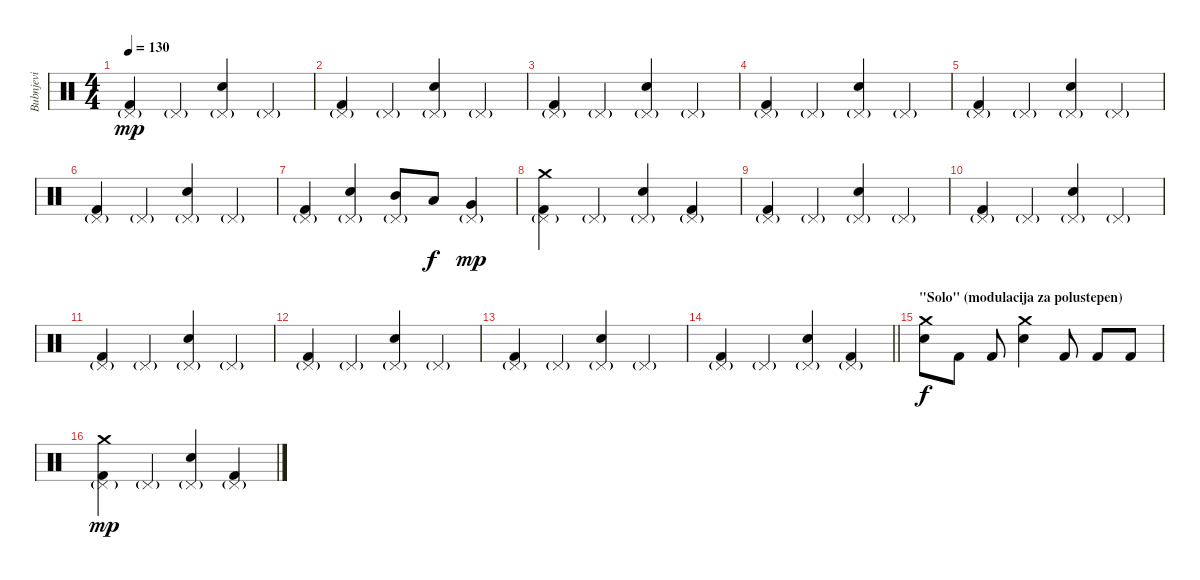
\track ("Bubnjevi" "Bubnjevi") {instrument percussion}
\staff {score}
\articulation defaults
\ts (4 4)
\tempo 130
\clef neutral
\ks c
("Pedal Hi-Hat (hit)"{g} "Kick (hit) 2").4{dy mp} "Pedal Hi-Hat (hit)"{g}.4 ("Pedal Hi-Hat (hit)"{g} "Electric Snare (hit)").4 "Pedal Hi-Hat (hit)"{g}.4 |
("Pedal Hi-Hat (hit)"{g} "Kick (hit) 2").4 "Pedal Hi-Hat (hit)"{g}.4 ("Pedal Hi-Hat (hit)"{g} "Electric Snare (hit)").4 "Pedal Hi-Hat (hit)"{g}.4 |
("Pedal Hi-Hat (hit)"{g} "Kick (hit) 2").4 "Pedal Hi-Hat (hit)"{g}.4 ("Pedal Hi-Hat (hit)"{g} "Electric Snare (hit)").4 "Pedal Hi-Hat (hit)"{g}.4 |
("Pedal Hi-Hat (hit)"{g} "Kick (hit) 2").4 "Pedal Hi-Hat (hit)"{g}.4 ("Pedal Hi-Hat (hit)"{g} "Electric Snare (hit)").4 "Pedal Hi-Hat (hit)"{g}.4 |
("Pedal Hi-Hat (hit)"{g} "Kick (hit) 2").4 "Pedal Hi-Hat (hit)"{g}.4 ("Pedal Hi-Hat (hit)"{g} "Electric Snare (hit)").4 "Pedal Hi-Hat (hit)"{g}.4 |
("Pedal Hi-Hat (hit)"{g} "Kick (hit) 2").4 "Pedal Hi-Hat (hit)"{g}.4 ("Pedal Hi-Hat (hit)"{g} "Electric Snare (hit)").4 "Pedal Hi-Hat (hit)"{g}.4 |
("Pedal Hi-Hat (hit)"{g} "Kick (hit) 2").4 ("Pedal Hi-Hat (hit)"{g} "Electric Snare (hit)").4 ("Pedal Hi-Hat (hit)"{g} "Mid Tom (hit)").8 "Low Tom (hit)".8{dy f} ("Pedal Hi-Hat (hit)"{g} "Very Low Tom (hit)").4{dy mp} |
("Crash medium (hit)" "Pedal Hi-Hat (hit)"{g} "Kick (hit) 2").4 "Pedal Hi-Hat (hit)"{g}.4 ("Pedal Hi-Hat (hit)"{g} "Electric Snare (hit)").4 ("Pedal Hi-Hat (hit)"{g} "Kick (hit) 2").4 |
("Pedal Hi-Hat (hit)"{g} "Kick (hit) 2").4 "Pedal Hi-Hat (hit)"{g}.4 ("Pedal Hi-Hat (hit)"{g} "Electric Snare (hit)").4 "Pedal Hi-Hat (hit)"{g}.4 |
("Pedal Hi-Hat (hit)"{g} "Kick (hit) 2").4 "Pedal Hi-Hat (hit)"{g}.4 ("Pedal Hi-Hat (hit)"{g} "Electric Snare (hit)").4 "Pedal Hi-Hat (hit)"{g}.4 |
("Pedal Hi-Hat (hit)"{g} "Kick (hit) 2").4 "Pedal Hi-Hat (hit)"{g}.4 ("Pedal Hi-Hat (hit)"{g} "Electric Snare (hit)").4 "Pedal Hi-Hat (hit)"{g}.4 |
("Pedal Hi-Hat (hit)"{g} "Kick (hit) 2").4 "Pedal Hi-Hat (hit)"{g}.4 ("Pedal Hi-Hat (hit)"{g} "Electric Snare (hit)").4 "Pedal Hi-Hat (hit)"{g}.4 |
("Pedal Hi-Hat (hit)"{g} "Kick (hit) 2").4 "Pedal Hi-Hat (hit)"{g}.4 ("Pedal Hi-Hat (hit)"{g} "Electric Snare (hit)").4 "Pedal Hi-Hat (hit)"{g}.4 |
\barLineRight lightlight
("Pedal Hi-Hat (hit)"{g} "Kick (hit) 2").4 "Pedal Hi-Hat (hit)"{g}.4 ("Pedal Hi-Hat (hit)"{g} "Electric Snare (hit)").4 ("Pedal Hi-Hat (hit)"{g} "Kick (hit) 2").4 |
\section ("" "\"Solo\" (modulacija za polustepen)")
("Crash medium (hit)" "Electric Snare (hit)").8{dy f} "Kick (hit) 2".8 "Kick (hit) 2".8 ("Crash medium (hit)" "Electric Snare (hit)").4 "Kick (hit) 2".8 "Kick (hit) 2".8 "Kick (hit) 2".8 |
("Crash medium (hit)" "Pedal Hi-Hat (hit)"{g} "Kick (hit) 2").4{dy mp} "Pedal Hi-Hat (hit)"{g}.4 ("Pedal Hi-Hat (hit)"{g} "Electric Snare (hit)").4 ("Pedal Hi-Hat (hit)"{g} "Kick (hit) 2").4
